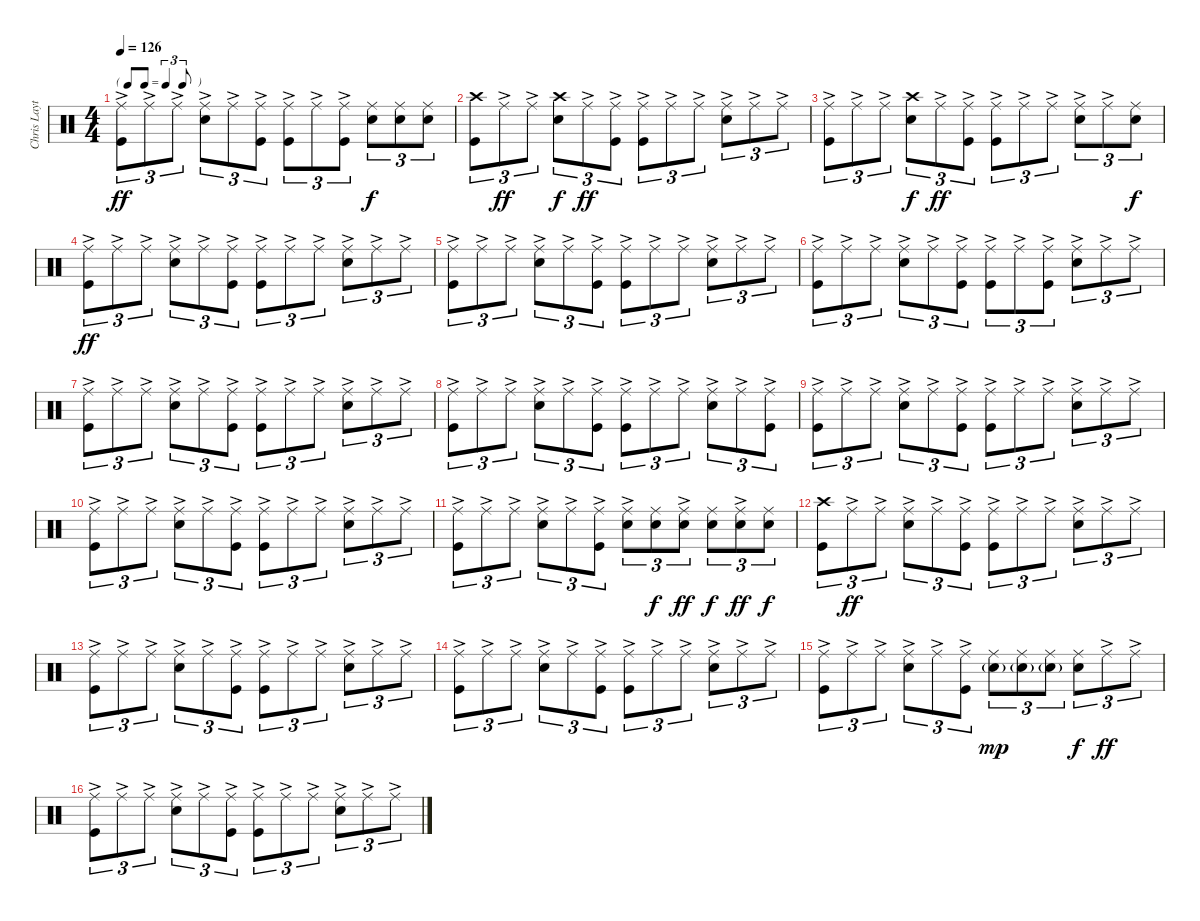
\track ("Chris Layton" "Chris Layt") {instrument percussion}
\staff {score}
\articulation defaults
\ts (4 4)
\tf triplet8th
\tempo 126
\clef neutral
\ks c
("Ride (middle)"{ac} "Kick (hit)").8{tu (3 2) dy ff} "Ride (middle)"{ac}.8{tu (3 2)} "Ride (middle)"{ac}.8{tu (3 2)} ("Ride (middle)"{ac} "Electric Snare (hit)").8{tu (3 2)} "Ride (middle)"{ac}.8{tu (3 2)} ("Ride (middle)"{ac} "Kick (hit)").8{tu (3 2)} ("Ride (middle)"{ac} "Kick (hit)").8{tu (3 2)} "Ride (middle)"{ac}.8{tu (3 2)} ("Ride (middle)"{ac} "Kick (hit)").8{tu (3 2)} ("Ride (middle)" "Electric Snare (hit)").8{tu (3 2) dy f} ("Ride (middle)" "Electric Snare (hit)").8{tu (3 2)} ("Ride (middle)" "Electric Snare (hit)").8{tu (3 2)} |
("Crash high (hit)" "Kick (hit)").8{tu (3 2)} "Ride (middle)"{ac}.8{tu (3 2) dy ff} "Ride (middle)"{ac}.8{tu (3 2)} ("Crash high (hit)" "Electric Snare (hit)").8{tu (3 2) dy f} "Ride (middle)"{ac}.8{tu (3 2) dy ff} ("Ride (middle)"{ac} "Kick (hit)").8{tu (3 2)} ("Ride (middle)"{ac} "Kick (hit)").8{tu (3 2)} "Ride (middle)"{ac}.8{tu (3 2)} "Ride (middle)"{ac}.8{tu (3 2)} ("Ride (middle)"{ac} "Electric Snare (hit)").8{tu (3 2)} "Ride (middle)"{ac}.8{tu (3 2)} "Ride (middle)"{ac}.8{tu (3 2)} |
("Ride (middle)"{ac} "Kick (hit)").8{tu (3 2)} "Ride (middle)"{ac}.8{tu (3 2)} "Ride (middle)"{ac}.8{tu (3 2)} ("Crash high (hit)" "Electric Snare (hit)").8{tu (3 2) dy f} "Ride (middle)"{ac}.8{tu (3 2) dy ff} ("Ride (middle)"{ac} "Kick (hit)").8{tu (3 2)} ("Ride (middle)"{ac} "Kick (hit)").8{tu (3 2)} "Ride (middle)"{ac}.8{tu (3 2)} "Ride (middle)"{ac}.8{tu (3 2)} ("Ride (middle)"{ac} "Electric Snare (hit)").8{tu (3 2)} "Ride (middle)"{ac}.8{tu (3 2)} ("Ride (middle)" "Electric Snare (hit)").8{tu (3 2) dy f} |
("Ride (middle)"{ac} "Kick (hit)").8{tu (3 2) dy ff} "Ride (middle)"{ac}.8{tu (3 2)} "Ride (middle)"{ac}.8{tu (3 2)} ("Ride (middle)"{ac} "Electric Snare (hit)").8{tu (3 2)} "Ride (middle)"{ac}.8{tu (3 2)} ("Ride (middle)"{ac} "Kick (hit)").8{tu (3 2)} ("Ride (middle)"{ac} "Kick (hit)").8{tu (3 2)} "Ride (middle)"{ac}.8{tu (3 2)} "Ride (middle)"{ac}.8{tu (3 2)} ("Ride (middle)"{ac} "Electric Snare (hit)").8{tu (3 2)} "Ride (middle)"{ac}.8{tu (3 2)} "Ride (middle)"{ac}.8{tu (3 2)} |
("Ride (middle)"{ac} "Kick (hit)").8{tu (3 2)} "Ride (middle)"{ac}.8{tu (3 2)} "Ride (middle)"{ac}.8{tu (3 2)} ("Ride (middle)"{ac} "Electric Snare (hit)").8{tu (3 2)} "Ride (middle)"{ac}.8{tu (3 2)} ("Ride (middle)"{ac} "Kick (hit)").8{tu (3 2)} ("Ride (middle)"{ac} "Kick (hit)").8{tu (3 2)} "Ride (middle)"{ac}.8{tu (3 2)} "Ride (middle)"{ac}.8{tu (3 2)} ("Ride (middle)"{ac} "Electric Snare (hit)").8{tu (3 2)} "Ride (middle)"{ac}.8{tu (3 2)} "Ride (middle)"{ac}.8{tu (3 2)} |
("Ride (middle)"{ac} "Kick (hit)").8{tu (3 2)} "Ride (middle)"{ac}.8{tu (3 2)} "Ride (middle)"{ac}.8{tu (3 2)} ("Ride (middle)"{ac} "Electric Snare (hit)").8{tu (3 2)} "Ride (middle)"{ac}.8{tu (3 2)} ("Ride (middle)"{ac} "Kick (hit)").8{tu (3 2)} ("Ride (middle)"{ac} "Kick (hit)").8{tu (3 2)} "Ride (middle)"{ac}.8{tu (3 2)} ("Ride (middle)"{ac} "Kick (hit)").8{tu (3 2)} ("Ride (middle)"{ac} "Electric Snare (hit)").8{tu (3 2)} "Ride (middle)"{ac}.8{tu (3 2)} "Ride (middle)"{ac}.8{tu (3 2)} |
("Ride (middle)"{ac} "Kick (hit)").8{tu (3 2)} "Ride (middle)"{ac}.8{tu (3 2)} "Ride (middle)"{ac}.8{tu (3 2)} ("Ride (middle)"{ac} "Electric Snare (hit)").8{tu (3 2)} "Ride (middle)"{ac}.8{tu (3 2)} ("Ride (middle)"{ac} "Kick (hit)").8{tu (3 2)} ("Ride (middle)"{ac} "Kick (hit)").8{tu (3 2)} "Ride (middle)"{ac}.8{tu (3 2)} "Ride (middle)"{ac}.8{tu (3 2)} ("Ride (middle)"{ac} "Electric Snare (hit)").8{tu (3 2)} "Ride (middle)"{ac}.8{tu (3 2)} "Ride (middle)"{ac}.8{tu (3 2)} |
("Ride (middle)"{ac} "Kick (hit)").8{tu (3 2)} "Ride (middle)"{ac}.8{tu (3 2)} "Ride (middle)"{ac}.8{tu (3 2)} ("Ride (middle)"{ac} "Electric Snare (hit)").8{tu (3 2)} "Ride (middle)"{ac}.8{tu (3 2)} ("Ride (middle)"{ac} "Kick (hit)").8{tu (3 2)} ("Ride (middle)"{ac} "Kick (hit)").8{tu (3 2)} "Ride (middle)"{ac}.8{tu (3 2)} "Ride (middle)"{ac}.8{tu (3 2)} ("Ride (middle)"{ac} "Electric Snare (hit)").8{tu (3 2)} "Ride (middle)"{ac}.8{tu (3 2)} ("Ride (middle)"{ac} "Kick (hit)").8{tu (3 2)} |
("Ride (middle)"{ac} "Kick (hit)").8{tu (3 2)} "Ride (middle)"{ac}.8{tu (3 2)} "Ride (middle)"{ac}.8{tu (3 2)} ("Ride (middle)"{ac} "Electric Snare (hit)").8{tu (3 2)} "Ride (middle)"{ac}.8{tu (3 2)} ("Ride (middle)"{ac} "Kick (hit)").8{tu (3 2)} ("Ride (middle)"{ac} "Kick (hit)").8{tu (3 2)} "Ride (middle)"{ac}.8{tu (3 2)} "Ride (middle)"{ac}.8{tu (3 2)} ("Ride (middle)"{ac} "Electric Snare (hit)").8{tu (3 2)} "Ride (middle)"{ac}.8{tu (3 2)} "Ride (middle)"{ac}.8{tu (3 2)} |
("Ride (middle)"{ac} "Kick (hit)").8{tu (3 2)} "Ride (middle)"{ac}.8{tu (3 2)} "Ride (middle)"{ac}.8{tu (3 2)} ("Ride (middle)"{ac} "Electric Snare (hit)").8{tu (3 2)} "Ride (middle)"{ac}.8{tu (3 2)} ("Ride (middle)"{ac} "Kick (hit)").8{tu (3 2)} ("Ride (middle)"{ac} "Kick (hit)").8{tu (3 2)} "Ride (middle)"{ac}.8{tu (3 2)} "Ride (middle)"{ac}.8{tu (3 2)} ("Ride (middle)"{ac} "Electric Snare (hit)").8{tu (3 2)} "Ride (middle)"{ac}.8{tu (3 2)} "Ride (middle)"{ac}.8{tu (3 2)} |
("Ride (middle)"{ac} "Kick (hit)").8{tu (3 2)} "Ride (middle)"{ac}.8{tu (3 2)} "Ride (middle)"{ac}.8{tu (3 2)} ("Ride (middle)"{ac} "Electric Snare (hit)").8{tu (3 2)} "Ride (middle)"{ac}.8{tu (3 2)} ("Ride (middle)"{ac} "Kick (hit)").8{tu (3 2)} ("Ride (middle)" "Electric Snare (hit)"{ac}).8{tu (3 2)} ("Ride (middle)" "Electric Snare (hit)").8{tu (3 2) dy f} ("Ride (middle)" "Electric Snare (hit)"{ac}).8{tu (3 2) dy ff} ("Ride (middle)" "Electric Snare (hit)").8{tu (3 2) dy f} ("Ride (middle)" "Electric Snare (hit)"{ac}).8{tu (3 2) dy ff} ("Ride (middle)" "Electric Snare (hit)").8{tu (3 2) dy f} |
("Crash high (hit)" "Kick (hit)").8{tu (3 2)} "Ride (middle)"{ac}.8{tu (3 2) dy ff} "Ride (middle)"{ac}.8{tu (3 2)} ("Ride (middle)"{ac} "Electric Snare (hit)").8{tu (3 2)} "Ride (middle)"{ac}.8{tu (3 2)} ("Ride (middle)"{ac} "Kick (hit)").8{tu (3 2)} ("Ride (middle)"{ac} "Kick (hit)").8{tu (3 2)} "Ride (middle)"{ac}.8{tu (3 2)} "Ride (middle)"{ac}.8{tu (3 2)} ("Ride (middle)"{ac} "Electric Snare (hit)").8{tu (3 2)} "Ride (middle)"{ac}.8{tu (3 2)} "Ride (middle)"{ac}.8{tu (3 2)} |
("Ride (middle)"{ac} "Kick (hit)").8{tu (3 2)} "Ride (middle)"{ac}.8{tu (3 2)} "Ride (middle)"{ac}.8{tu (3 2)} ("Ride (middle)"{ac} "Electric Snare (hit)").8{tu (3 2)} "Ride (middle)"{ac}.8{tu (3 2)} ("Ride (middle)"{ac} "Kick (hit)").8{tu (3 2)} ("Ride (middle)"{ac} "Kick (hit)").8{tu (3 2)} "Ride (middle)"{ac}.8{tu (3 2)} "Ride (middle)"{ac}.8{tu (3 2)} ("Ride (middle)"{ac} "Electric Snare (hit)").8{tu (3 2)} "Ride (middle)"{ac}.8{tu (3 2)} "Ride (middle)"{ac}.8{tu (3 2)} |
("Ride (middle)"{ac} "Kick (hit)").8{tu (3 2)} "Ride (middle)"{ac}.8{tu (3 2)} "Ride (middle)"{ac}.8{tu (3 2)} ("Ride (middle)"{ac} "Electric Snare (hit)").8{tu (3 2)} "Ride (middle)"{ac}.8{tu (3 2)} ("Ride (middle)"{ac} "Kick (hit)").8{tu (3 2)} ("Ride (middle)"{ac} "Kick (hit)").8{tu (3 2)} "Ride (middle)"{ac}.8{tu (3 2)} "Ride (middle)"{ac}.8{tu (3 2)} ("Ride (middle)"{ac} "Electric Snare (hit)").8{tu (3 2)} "Ride (middle)"{ac}.8{tu (3 2)} "Ride (middle)"{ac}.8{tu (3 2)} |
("Ride (middle)"{ac} "Kick (hit)").8{tu (3 2)} "Ride (middle)"{ac}.8{tu (3 2)} "Ride (middle)"{ac}.8{tu (3 2)} ("Ride (middle)"{ac} "Electric Snare (hit)").8{tu (3 2)} "Ride (middle)"{ac}.8{tu (3 2)} ("Ride (middle)"{ac} "Kick (hit)").8{tu (3 2)} ("Ride (middle)" "Electric Snare (hit)"{g}).8{tu (3 2) dy mp} ("Ride (middle)" "Electric Snare (hit)"{g}).8{tu (3 2)} ("Ride (middle)" "Electric Snare (hit)"{g}).8{tu (3 2)} ("Ride (middle)" "Electric Snare (hit)").8{tu (3 2) dy f} "Ride (middle)"{ac}.8{tu (3 2) dy ff} "Ride (middle)"{ac}.8{tu (3 2)} |
("Ride (middle)"{ac} "Kick (hit)").8{tu (3 2)} "Ride (middle)"{ac}.8{tu (3 2)} "Ride (middle)"{ac}.8{tu (3 2)} ("Ride (middle)"{ac} "Electric Snare (hit)").8{tu (3 2)} "Ride (middle)"{ac}.8{tu (3 2)} ("Ride (middle)"{ac} "Kick (hit)").8{tu (3 2)} ("Ride (middle)"{ac} "Kick (hit)").8{tu (3 2)} "Ride (middle)"{ac}.8{tu (3 2)} "Ride (middle)"{ac}.8{tu (3 2)} ("Ride (middle)"{ac} "Electric Snare (hit)").8{tu (3 2)} "Ride (middle)"{ac}.8{tu (3 2)} "Ride (middle)"{ac}.8{tu (3 2)}
